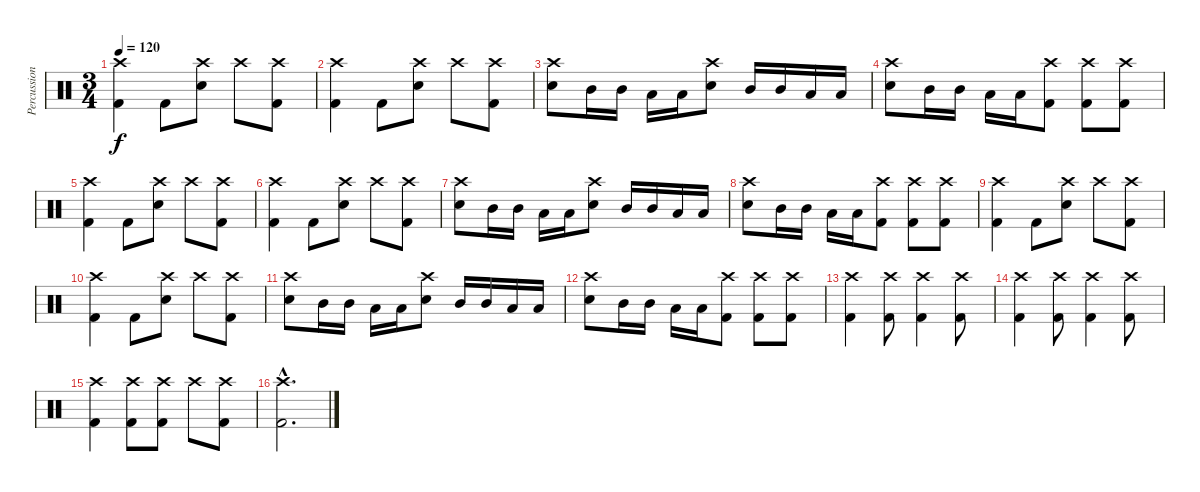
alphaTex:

\track ("Percussion" "Percussion") {instrument percussion}
\staff {score}
\articulation defaults
\ts (3 4)
\tempo 120
\clef neutral
\ks c
("Crash high (hit)" "Kick (hit) 2").4{dy f} "Kick (hit) 2".8 ("Crash high (hit)" "Snare (hit) 2").8 "Crash high (hit)".8 ("Crash high (hit)" "Kick (hit) 2").8 |
("Crash high (hit)" "Kick (hit) 2").4 "Kick (hit) 2".8 ("Crash high (hit)" "Snare (hit) 2").8 "Crash high (hit)".8 ("Crash high (hit)" "Kick (hit) 2").8 |
("Crash high (hit)" "Snare (hit) 2").8 "Mid Tom (hit)".16 "Mid Tom (hit)".16 "Low Tom (hit)".16 "Low Tom (hit)".16 ("Crash high (hit)" "Snare (hit) 2").8 "Mid Tom (hit)".16 "Mid Tom (hit)".16 "Low Tom (hit)".16 "Low Tom (hit)".16 |
("Crash high (hit)" "Snare (hit) 2").8 "Mid Tom (hit)".16 "Mid Tom (hit)".16 "Low Tom (hit)".16 "Low Tom (hit)".16 ("Crash high (hit)" "Kick (hit) 2").8 ("Crash high (hit)" "Kick (hit) 2").8 ("Crash high (hit)" "Kick (hit) 2").8 |
("Crash high (hit)" "Kick (hit) 2").4 "Kick (hit) 2".8 ("Crash high (hit)" "Snare (hit) 2").8 "Crash high (hit)".8 ("Crash high (hit)" "Kick (hit) 2").8 |
("Crash high (hit)" "Kick (hit) 2").4 "Kick (hit) 2".8 ("Crash high (hit)" "Snare (hit) 2").8 "Crash high (hit)".8 ("Crash high (hit)" "Kick (hit) 2").8 |
("Crash high (hit)" "Snare (hit) 2").8 "Mid Tom (hit)".16 "Mid Tom (hit)".16 "Low Tom (hit)".16 "Low Tom (hit)".16 ("Crash high (hit)" "Snare (hit) 2").8 "Mid Tom (hit)".16 "Mid Tom (hit)".16 "Low Tom (hit)".16 "Low Tom (hit)".16 |
("Crash high (hit)" "Snare (hit) 2").8 "Mid Tom (hit)".16 "Mid Tom (hit)".16 "Low Tom (hit)".16 "Low Tom (hit)".16 ("Crash high (hit)" "Kick (hit) 2").8 ("Crash high (hit)" "Kick (hit) 2").8 ("Crash high (hit)" "Kick (hit) 2").8 |
("Crash high (hit)" "Kick (hit) 2").4 "Kick (hit) 2".8 ("Crash high (hit)" "Snare (hit) 2").8 "Crash high (hit)".8 ("Crash high (hit)" "Kick (hit) 2").8 |
("Crash high (hit)" "Kick (hit) 2").4 "Kick (hit) 2".8 ("Crash high (hit)" "Snare (hit) 2").8 "Crash high (hit)".8 ("Crash high (hit)" "Kick (hit) 2").8 |
("Crash high (hit)" "Snare (hit) 2").8 "Mid Tom (hit)".16 "Mid Tom (hit)".16 "Low Tom (hit)".16 "Low Tom (hit)".16 ("Crash high (hit)" "Snare (hit) 2").8 "Mid Tom (hit)".16 "Mid Tom (hit)".16 "Low Tom (hit)".16 "Low Tom (hit)".16 |
("Crash high (hit)" "Snare (hit) 2").8 "Mid Tom (hit)".16 "Mid Tom (hit)".16 "Low Tom (hit)".16 "Low Tom (hit)".16 ("Crash high (hit)" "Kick (hit) 2").8 ("Crash high (hit)" "Kick (hit) 2").8 ("Crash high (hit)" "Kick (hit) 2").8 |
("Crash high (hit)" "Kick (hit) 2").4 ("Crash high (hit)" "Kick (hit) 2").8 ("Crash high (hit)" "Kick (hit) 2").4 ("Crash high (hit)" "Kick (hit) 2").8 |
("Crash high (hit)" "Kick (hit) 2").4 ("Crash high (hit)" "Kick (hit) 2").8 ("Crash high (hit)" "Kick (hit) 2").4 ("Crash high (hit)" "Kick (hit) 2").8 |
("Crash high (hit)" "Kick (hit) 2").4 ("Crash high (hit)" "Kick (hit) 2").8 ("Crash high (hit)" "Kick (hit) 2").8 "Crash high (hit)".8 ("Crash high (hit)" "Kick (hit) 2").8 |
("Crash high (hit)"{hac} "Kick (hit) 2"{hac}).2{d}
